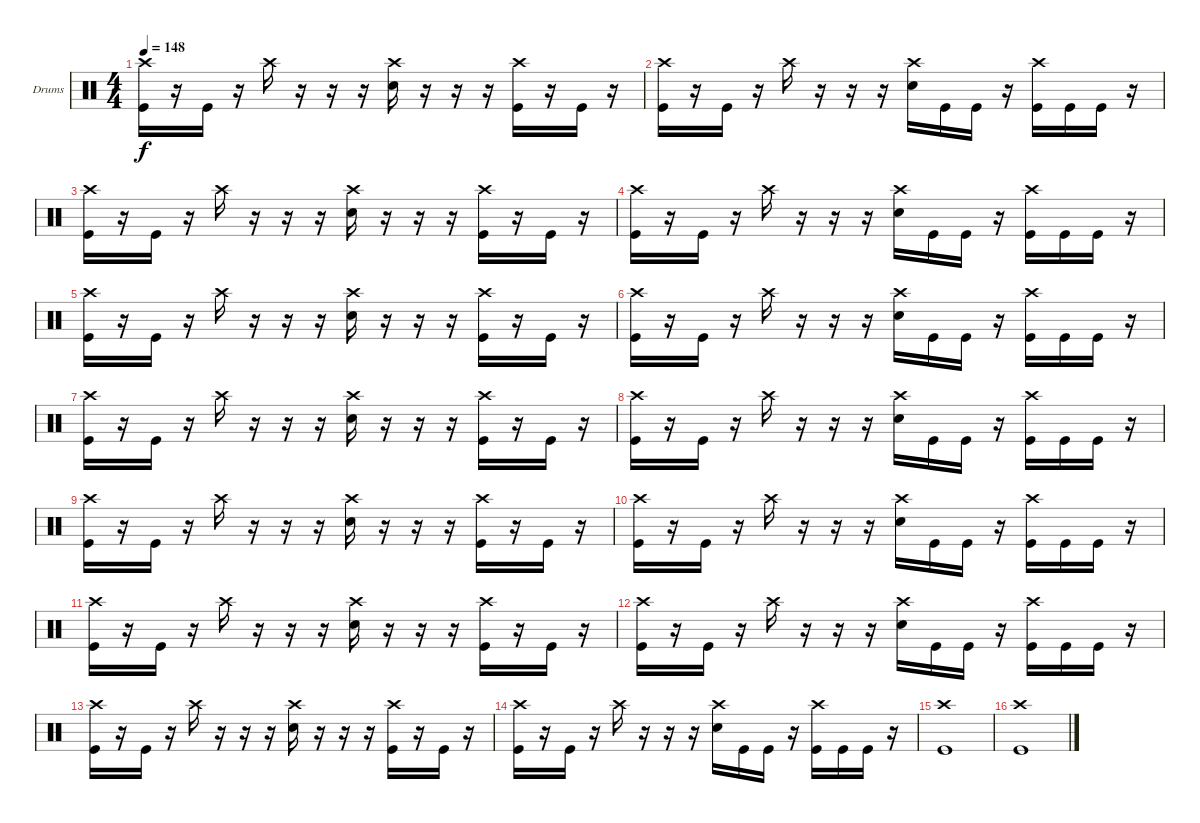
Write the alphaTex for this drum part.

\bracketExtendMode groupsimilarinstruments
\firstSystemTrackNameOrientation horizontal
\otherSystemsTrackNameOrientation horizontal
\track ("Drumkit" "Drums") {instrument percussion}
\staff {score}
\articulation defaults
\ts (4 4)
\tempo 148
\clef neutral
\ks c
("Crash high (hit)" "Kick (hit)").16{dy f} r.16 "Kick (hit)".16 r.16 "Crash high (hit)".16 r.16 r.16 r.16 ("Snare (hit) 2" "Crash high (hit)").16 r.16 r.16 r.16 ("Kick (hit)" "Crash high (hit)").16 r.16 "Kick (hit)".16 r.16 |
("Crash high (hit)" "Kick (hit)").16 r.16 "Kick (hit)".16 r.16 "Crash high (hit)".16 r.16 r.16 r.16 ("Snare (hit) 2" "Crash high (hit)").16 "Kick (hit)".16 "Kick (hit)".16 r.16 ("Kick (hit)" "Crash high (hit)").16 "Kick (hit)".16 "Kick (hit)".16 r.16 |
("Crash high (hit)" "Kick (hit)").16 r.16 "Kick (hit)".16 r.16 "Crash high (hit)".16 r.16 r.16 r.16 ("Snare (hit) 2" "Crash high (hit)").16 r.16 r.16 r.16 ("Kick (hit)" "Crash high (hit)").16 r.16 "Kick (hit)".16 r.16 |
("Crash high (hit)" "Kick (hit)").16 r.16 "Kick (hit)".16 r.16 "Crash high (hit)".16 r.16 r.16 r.16 ("Snare (hit) 2" "Crash high (hit)").16 "Kick (hit)".16 "Kick (hit)".16 r.16 ("Kick (hit)" "Crash high (hit)").16 "Kick (hit)".16 "Kick (hit)".16 r.16 |
("Crash high (hit)" "Kick (hit)").16 r.16 "Kick (hit)".16 r.16 "Crash high (hit)".16 r.16 r.16 r.16 ("Snare (hit) 2" "Crash high (hit)").16 r.16 r.16 r.16 ("Kick (hit)" "Crash high (hit)").16 r.16 "Kick (hit)".16 r.16 |
("Crash high (hit)" "Kick (hit)").16 r.16 "Kick (hit)".16 r.16 "Crash high (hit)".16 r.16 r.16 r.16 ("Snare (hit) 2" "Crash high (hit)").16 "Kick (hit)".16 "Kick (hit)".16 r.16 ("Kick (hit)" "Crash high (hit)").16 "Kick (hit)".16 "Kick (hit)".16 r.16 |
("Crash high (hit)" "Kick (hit)").16 r.16 "Kick (hit)".16 r.16 "Crash high (hit)".16 r.16 r.16 r.16 ("Snare (hit) 2" "Crash high (hit)").16 r.16 r.16 r.16 ("Kick (hit)" "Crash high (hit)").16 r.16 "Kick (hit)".16 r.16 |
("Crash high (hit)" "Kick (hit)").16 r.16 "Kick (hit)".16 r.16 "Crash high (hit)".16 r.16 r.16 r.16 ("Snare (hit) 2" "Crash high (hit)").16 "Kick (hit)".16 "Kick (hit)".16 r.16 ("Kick (hit)" "Crash high (hit)").16 "Kick (hit)".16 "Kick (hit)".16 r.16 |
("Crash high (hit)" "Kick (hit)").16 r.16 "Kick (hit)".16 r.16 "Crash high (hit)".16 r.16 r.16 r.16 ("Snare (hit) 2" "Crash high (hit)").16 r.16 r.16 r.16 ("Kick (hit)" "Crash high (hit)").16 r.16 "Kick (hit)".16 r.16 |
("Crash high (hit)" "Kick (hit)").16 r.16 "Kick (hit)".16 r.16 "Crash high (hit)".16 r.16 r.16 r.16 ("Snare (hit) 2" "Crash high (hit)").16 "Kick (hit)".16 "Kick (hit)".16 r.16 ("Kick (hit)" "Crash high (hit)").16 "Kick (hit)".16 "Kick (hit)".16 r.16 |
("Crash high (hit)" "Kick (hit)").16 r.16 "Kick (hit)".16 r.16 "Crash high (hit)".16 r.16 r.16 r.16 ("Snare (hit) 2" "Crash high (hit)").16 r.16 r.16 r.16 ("Kick (hit)" "Crash high (hit)").16 r.16 "Kick (hit)".16 r.16 |
("Crash high (hit)" "Kick (hit)").16 r.16 "Kick (hit)".16 r.16 "Crash high (hit)".16 r.16 r.16 r.16 ("Snare (hit) 2" "Crash high (hit)").16 "Kick (hit)".16 "Kick (hit)".16 r.16 ("Kick (hit)" "Crash high (hit)").16 "Kick (hit)".16 "Kick (hit)".16 r.16 |
("Crash high (hit)" "Kick (hit)").16 r.16 "Kick (hit)".16 r.16 "Crash high (hit)".16 r.16 r.16 r.16 ("Snare (hit) 2" "Crash high (hit)").16 r.16 r.16 r.16 ("Kick (hit)" "Crash high (hit)").16 r.16 "Kick (hit)".16 r.16 |
("Crash high (hit)" "Kick (hit)").16 r.16 "Kick (hit)".16 r.16 "Crash high (hit)".16 r.16 r.16 r.16 ("Snare (hit) 2" "Crash high (hit)").16 "Kick (hit)".16 "Kick (hit)".16 r.16 ("Kick (hit)" "Crash high (hit)").16 "Kick (hit)".16 "Kick (hit)".16 r.16 |
("Kick (hit)" "Crash high (hit)").1 |
("Kick (hit)" "Crash high (hit)").1
